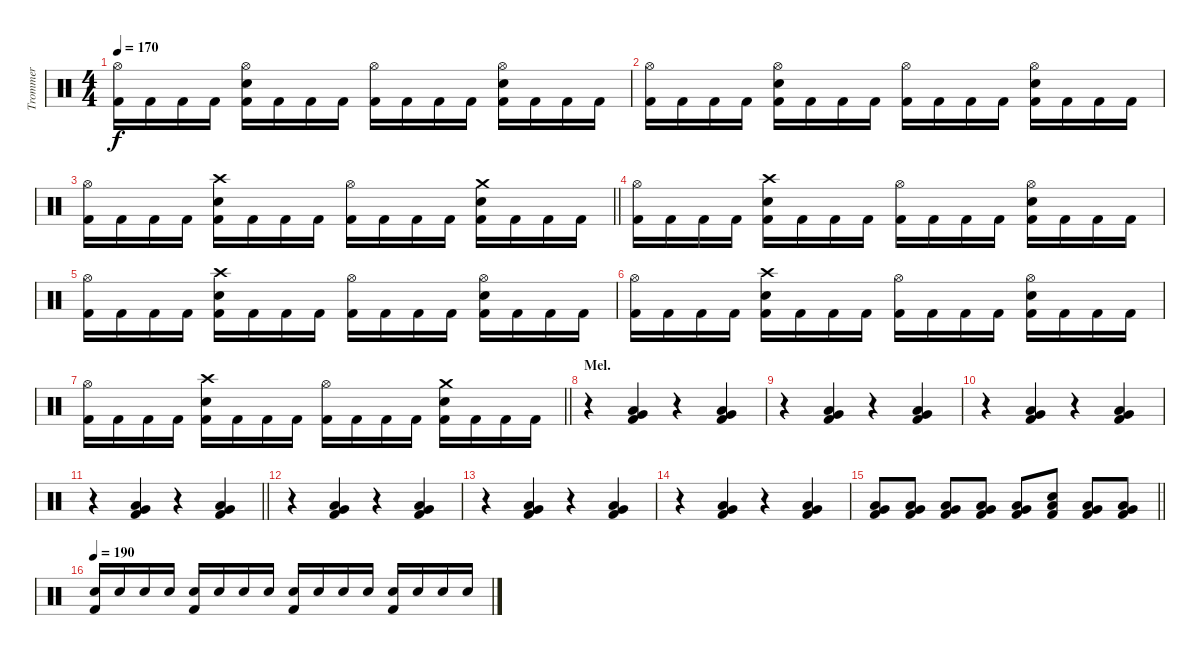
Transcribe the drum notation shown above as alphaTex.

\track ("Trommer" "Trommer") {instrument percussion}
\staff {score}
\articulation defaults
\ts (4 4)
\tempo 170
\clef neutral
\ks c
("Hi-Hat (open)" "Kick (hit) 2").16{dy f} "Kick (hit) 2".16 "Kick (hit) 2".16 "Kick (hit) 2".16 ("Hi-Hat (open)" "Snare (hit) 2" "Kick (hit) 2").16 "Kick (hit) 2".16 "Kick (hit) 2".16 "Kick (hit) 2".16 ("Hi-Hat (open)" "Kick (hit) 2").16 "Kick (hit) 2".16 "Kick (hit) 2".16 "Kick (hit) 2".16 ("Hi-Hat (open)" "Snare (hit) 2" "Kick (hit) 2").16 "Kick (hit) 2".16 "Kick (hit) 2".16 "Kick (hit) 2".16 |
("Hi-Hat (open)" "Kick (hit) 2").16 "Kick (hit) 2".16 "Kick (hit) 2".16 "Kick (hit) 2".16 ("Hi-Hat (open)" "Snare (hit) 2" "Kick (hit) 2").16 "Kick (hit) 2".16 "Kick (hit) 2".16 "Kick (hit) 2".16 ("Hi-Hat (open)" "Kick (hit) 2").16 "Kick (hit) 2".16 "Kick (hit) 2".16 "Kick (hit) 2".16 ("Hi-Hat (open)" "Snare (hit) 2" "Kick (hit) 2").16 "Kick (hit) 2".16 "Kick (hit) 2".16 "Kick (hit) 2".16 |
\barLineRight lightlight
("Hi-Hat (open)" "Kick (hit) 2").16 "Kick (hit) 2".16 "Kick (hit) 2".16 "Kick (hit) 2".16 ("Crash high (hit)" "Snare (hit) 2" "Kick (hit) 2").16 "Kick (hit) 2".16 "Kick (hit) 2".16 "Kick (hit) 2".16 ("Hi-Hat (open)" "Kick (hit) 2").16 "Kick (hit) 2".16 "Kick (hit) 2".16 "Kick (hit) 2".16 ("Crash medium (hit)" "Snare (hit) 2" "Kick (hit) 2").16 "Kick (hit) 2".16 "Kick (hit) 2".16 "Kick (hit) 2".16 |
("Hi-Hat (open)" "Kick (hit) 2").16 "Kick (hit) 2".16 "Kick (hit) 2".16 "Kick (hit) 2".16 ("Crash high (hit)" "Snare (hit) 2" "Kick (hit) 2").16 "Kick (hit) 2".16 "Kick (hit) 2".16 "Kick (hit) 2".16 ("Hi-Hat (open)" "Kick (hit) 2").16 "Kick (hit) 2".16 "Kick (hit) 2".16 "Kick (hit) 2".16 ("Hi-Hat (open)" "Snare (hit) 2" "Kick (hit) 2").16 "Kick (hit) 2".16 "Kick (hit) 2".16 "Kick (hit) 2".16 |
("Hi-Hat (open)" "Kick (hit) 2").16 "Kick (hit) 2".16 "Kick (hit) 2".16 "Kick (hit) 2".16 ("Crash high (hit)" "Snare (hit) 2" "Kick (hit) 2").16 "Kick (hit) 2".16 "Kick (hit) 2".16 "Kick (hit) 2".16 ("Hi-Hat (open)" "Kick (hit) 2").16 "Kick (hit) 2".16 "Kick (hit) 2".16 "Kick (hit) 2".16 ("Hi-Hat (open)" "Snare (hit) 2" "Kick (hit) 2").16 "Kick (hit) 2".16 "Kick (hit) 2".16 "Kick (hit) 2".16 |
("Hi-Hat (open)" "Kick (hit) 2").16 "Kick (hit) 2".16 "Kick (hit) 2".16 "Kick (hit) 2".16 ("Crash high (hit)" "Snare (hit) 2" "Kick (hit) 2").16 "Kick (hit) 2".16 "Kick (hit) 2".16 "Kick (hit) 2".16 ("Hi-Hat (open)" "Kick (hit) 2").16 "Kick (hit) 2".16 "Kick (hit) 2".16 "Kick (hit) 2".16 ("Hi-Hat (open)" "Snare (hit) 2" "Kick (hit) 2").16 "Kick (hit) 2".16 "Kick (hit) 2".16 "Kick (hit) 2".16 |
\barLineRight lightlight
("Hi-Hat (open)" "Kick (hit) 2").16 "Kick (hit) 2".16 "Kick (hit) 2".16 "Kick (hit) 2".16 ("Crash high (hit)" "Snare (hit) 2" "Kick (hit) 2").16 "Kick (hit) 2".16 "Kick (hit) 2".16 "Kick (hit) 2".16 ("Hi-Hat (open)" "Kick (hit) 2").16 "Kick (hit) 2".16 "Kick (hit) 2".16 "Kick (hit) 2".16 ("Crash medium (hit)" "Snare (hit) 2" "Kick (hit) 2").16 "Kick (hit) 2".16 "Kick (hit) 2".16 "Kick (hit) 2".16 |
\section ("" "Mel.")
r.4 ("Very Low Tom (hit)" "Low Floor Tom (hit)" "Kick (hit) 2").4 r.4 ("Very Low Tom (hit)" "Low Floor Tom (hit)" "Kick (hit) 2").4 |
r.4 ("Very Low Tom (hit)" "Low Floor Tom (hit)" "Kick (hit) 2").4 r.4 ("Very Low Tom (hit)" "Low Floor Tom (hit)" "Kick (hit) 2").4 |
r.4 ("Very Low Tom (hit)" "Low Floor Tom (hit)" "Kick (hit) 2").4 r.4 ("Very Low Tom (hit)" "Low Floor Tom (hit)" "Kick (hit) 2").4 |
\barLineRight lightlight
r.4 ("Very Low Tom (hit)" "Low Floor Tom (hit)" "Kick (hit) 2").4 r.4 ("Very Low Tom (hit)" "Low Floor Tom (hit)" "Kick (hit) 2").4 |
r.4 ("Very Low Tom (hit)" "Low Floor Tom (hit)" "Kick (hit) 2").4 r.4 ("Very Low Tom (hit)" "Low Floor Tom (hit)" "Kick (hit) 2").4 |
r.4 ("Very Low Tom (hit)" "Low Floor Tom (hit)" "Kick (hit) 2").4 r.4 ("Very Low Tom (hit)" "Low Floor Tom (hit)" "Kick (hit) 2").4 |
r.4 ("Very Low Tom (hit)" "Low Floor Tom (hit)" "Kick (hit) 2").4 r.4 ("Very Low Tom (hit)" "Low Floor Tom (hit)" "Kick (hit) 2").4 |
\barLineRight lightlight
("Very Low Tom (hit)" "Low Floor Tom (hit)" "Kick (hit) 2").8 ("Very Low Tom (hit)" "Low Floor Tom (hit)" "Kick (hit) 2").8 ("Very Low Tom (hit)" "Low Floor Tom (hit)" "Kick (hit) 2").8 ("Very Low Tom (hit)" "Low Floor Tom (hit)" "Kick (hit) 2").8 ("Very Low Tom (hit)" "Low Floor Tom (hit)" "Kick (hit) 2").8 ("Metronome (bell)" "Low Floor Tom (hit)" "Kick (hit) 2").8 ("Very Low Tom (hit)" "Low Floor Tom (hit)" "Kick (hit) 2").8 ("Very Low Tom (hit)" "Low Floor Tom (hit)" "Kick (hit) 2").8 |
\tempo 190
("Snare (hit) 2" "Kick (hit) 2").16 "Snare (hit) 2".16 "Snare (hit) 2".16 "Snare (hit) 2".16 ("Snare (hit) 2" "Kick (hit) 2").16 "Snare (hit) 2".16 "Snare (hit) 2".16 "Snare (hit) 2".16 ("Snare (hit) 2" "Kick (hit) 2").16 "Snare (hit) 2".16 "Snare (hit) 2".16 "Snare (hit) 2".16 ("Snare (hit) 2" "Kick (hit) 2").16 "Snare (hit) 2".16 "Snare (hit) 2".16 "Snare (hit) 2".16
